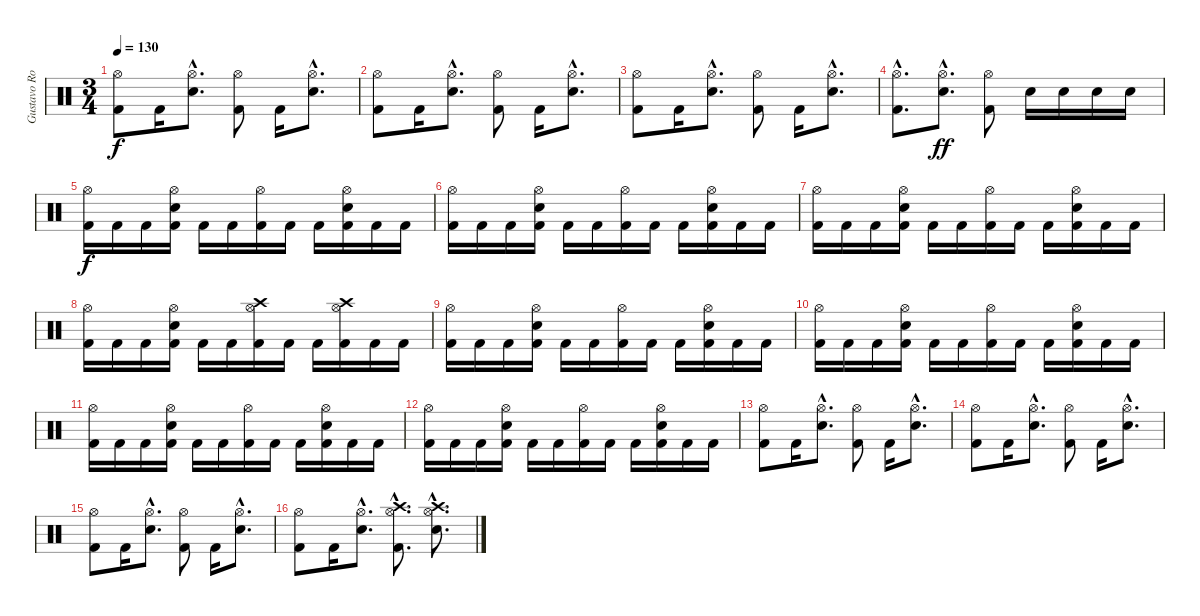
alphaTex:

\track ("Gustavo Rowek" "Gustavo Ro") {instrument percussion}
\staff {score}
\articulation defaults
\ts (3 4)
\tempo 130
\clef neutral
\ks c
("Hi-Hat (open)" "Kick (hit) 2").8{dy f} "Kick (hit) 2".16 ("Hi-Hat (open)"{hac} "Snare (hit) 2"{hac}).8{d} ("Hi-Hat (open)" "Kick (hit) 2").8 "Kick (hit) 2".16 ("Hi-Hat (open)"{hac} "Snare (hit) 2"{hac}).8{d} |
("Hi-Hat (open)" "Kick (hit) 2").8 "Kick (hit) 2".16 ("Hi-Hat (open)"{hac} "Snare (hit) 2"{hac}).8{d} ("Hi-Hat (open)" "Kick (hit) 2").8 "Kick (hit) 2".16 ("Hi-Hat (open)"{hac} "Snare (hit) 2"{hac}).8{d} |
("Hi-Hat (open)" "Kick (hit) 2").8 "Kick (hit) 2".16 ("Hi-Hat (open)"{hac} "Snare (hit) 2"{hac}).8{d} ("Hi-Hat (open)" "Kick (hit) 2").8 "Kick (hit) 2".16 ("Hi-Hat (open)"{hac} "Snare (hit) 2"{hac}).8{d} |
("Hi-Hat (open)"{hac} "Kick (hit) 2"{hac}).8{d} ("Hi-Hat (open)"{hac} "Snare (hit) 2"{hac}).8{d dy ff} ("Hi-Hat (open)" "Kick (hit) 2").8 "Electric Snare (hit)".16 "Electric Snare (hit)".16 "Electric Snare (hit)".16 "Electric Snare (hit)".16 |
("Hi-Hat (open)" "Kick (hit) 2").16{dy f} "Kick (hit) 2".16 "Kick (hit) 2".16 ("Hi-Hat (open)" "Snare (hit) 2" "Kick (hit) 2").16 "Kick (hit) 2".16 "Kick (hit) 2".16 ("Hi-Hat (open)" "Kick (hit) 2").16 "Kick (hit) 2".16 "Kick (hit) 2".16 ("Hi-Hat (open)" "Snare (hit) 2" "Kick (hit) 2").16 "Kick (hit) 2".16 "Kick (hit) 2".16 |
("Hi-Hat (open)" "Kick (hit) 2").16 "Kick (hit) 2".16 "Kick (hit) 2".16 ("Hi-Hat (open)" "Snare (hit) 2" "Kick (hit) 2").16 "Kick (hit) 2".16 "Kick (hit) 2".16 ("Hi-Hat (open)" "Kick (hit) 2").16 "Kick (hit) 2".16 "Kick (hit) 2".16 ("Hi-Hat (open)" "Snare (hit) 2" "Kick (hit) 2").16 "Kick (hit) 2".16 "Kick (hit) 2".16 |
("Hi-Hat (open)" "Kick (hit) 2").16 "Kick (hit) 2".16 "Kick (hit) 2".16 ("Hi-Hat (open)" "Snare (hit) 2" "Kick (hit) 2").16 "Kick (hit) 2".16 "Kick (hit) 2".16 ("Hi-Hat (open)" "Kick (hit) 2").16 "Kick (hit) 2".16 "Kick (hit) 2".16 ("Hi-Hat (open)" "Snare (hit) 2" "Kick (hit) 2").16 "Kick (hit) 2".16 "Kick (hit) 2".16 |
("Hi-Hat (open)" "Kick (hit) 2").16 "Kick (hit) 2".16 "Kick (hit) 2".16 ("Hi-Hat (open)" "Snare (hit) 2" "Kick (hit) 2").16 "Kick (hit) 2".16 "Kick (hit) 2".16 ("Hi-Hat (open)" "Crash high (hit)" "Kick (hit) 2").16 "Kick (hit) 2".16 "Kick (hit) 2".16 ("Hi-Hat (open)" "Crash high (hit)" "Kick (hit) 2").16 "Kick (hit) 2".16 "Kick (hit) 2".16 |
("Hi-Hat (open)" "Kick (hit) 2").16 "Kick (hit) 2".16 "Kick (hit) 2".16 ("Hi-Hat (open)" "Snare (hit) 2" "Kick (hit) 2").16 "Kick (hit) 2".16 "Kick (hit) 2".16 ("Hi-Hat (open)" "Kick (hit) 2").16 "Kick (hit) 2".16 "Kick (hit) 2".16 ("Hi-Hat (open)" "Snare (hit) 2" "Kick (hit) 2").16 "Kick (hit) 2".16 "Kick (hit) 2".16 |
("Hi-Hat (open)" "Kick (hit) 2").16 "Kick (hit) 2".16 "Kick (hit) 2".16 ("Hi-Hat (open)" "Snare (hit) 2" "Kick (hit) 2").16 "Kick (hit) 2".16 "Kick (hit) 2".16 ("Hi-Hat (open)" "Kick (hit) 2").16 "Kick (hit) 2".16 "Kick (hit) 2".16 ("Hi-Hat (open)" "Snare (hit) 2" "Kick (hit) 2").16 "Kick (hit) 2".16 "Kick (hit) 2".16 |
("Hi-Hat (open)" "Kick (hit) 2").16 "Kick (hit) 2".16 "Kick (hit) 2".16 ("Hi-Hat (open)" "Snare (hit) 2" "Kick (hit) 2").16 "Kick (hit) 2".16 "Kick (hit) 2".16 ("Hi-Hat (open)" "Kick (hit) 2").16 "Kick (hit) 2".16 "Kick (hit) 2".16 ("Hi-Hat (open)" "Snare (hit) 2" "Kick (hit) 2").16 "Kick (hit) 2".16 "Kick (hit) 2".16 |
("Hi-Hat (open)" "Kick (hit) 2").16 "Kick (hit) 2".16 "Kick (hit) 2".16 ("Hi-Hat (open)" "Snare (hit) 2" "Kick (hit) 2").16 "Kick (hit) 2".16 "Kick (hit) 2".16 ("Hi-Hat (open)" "Kick (hit) 2").16 "Kick (hit) 2".16 "Kick (hit) 2".16 ("Hi-Hat (open)" "Snare (hit) 2" "Kick (hit) 2").16 "Kick (hit) 2".16 "Kick (hit) 2".16 |
("Hi-Hat (open)" "Kick (hit) 2").8 "Kick (hit) 2".16 ("Hi-Hat (open)"{hac} "Snare (hit) 2"{hac}).8{d} ("Hi-Hat (open)" "Kick (hit) 2").8 "Kick (hit) 2".16 ("Hi-Hat (open)"{hac} "Snare (hit) 2"{hac}).8{d} |
("Hi-Hat (open)" "Kick (hit) 2").8 "Kick (hit) 2".16 ("Hi-Hat (open)"{hac} "Snare (hit) 2"{hac}).8{d} ("Hi-Hat (open)" "Kick (hit) 2").8 "Kick (hit) 2".16 ("Hi-Hat (open)"{hac} "Snare (hit) 2"{hac}).8{d} |
("Hi-Hat (open)" "Kick (hit) 2").8 "Kick (hit) 2".16 ("Hi-Hat (open)"{hac} "Snare (hit) 2"{hac}).8{d} ("Hi-Hat (open)" "Kick (hit) 2").8 "Kick (hit) 2".16 ("Hi-Hat (open)"{hac} "Snare (hit) 2"{hac}).8{d} |
("Hi-Hat (open)" "Kick (hit) 2").8 "Kick (hit) 2".16 ("Hi-Hat (open)"{hac} "Snare (hit) 2"{hac}).8{d} ("Hi-Hat (open)"{hac} "Crash high (hit)"{hac} "Kick (hit) 2"{hac}).8{d} ("Hi-Hat (open)"{hac} "Crash high (hit)"{hac} "Snare (hit) 2"{hac}).8{d}
